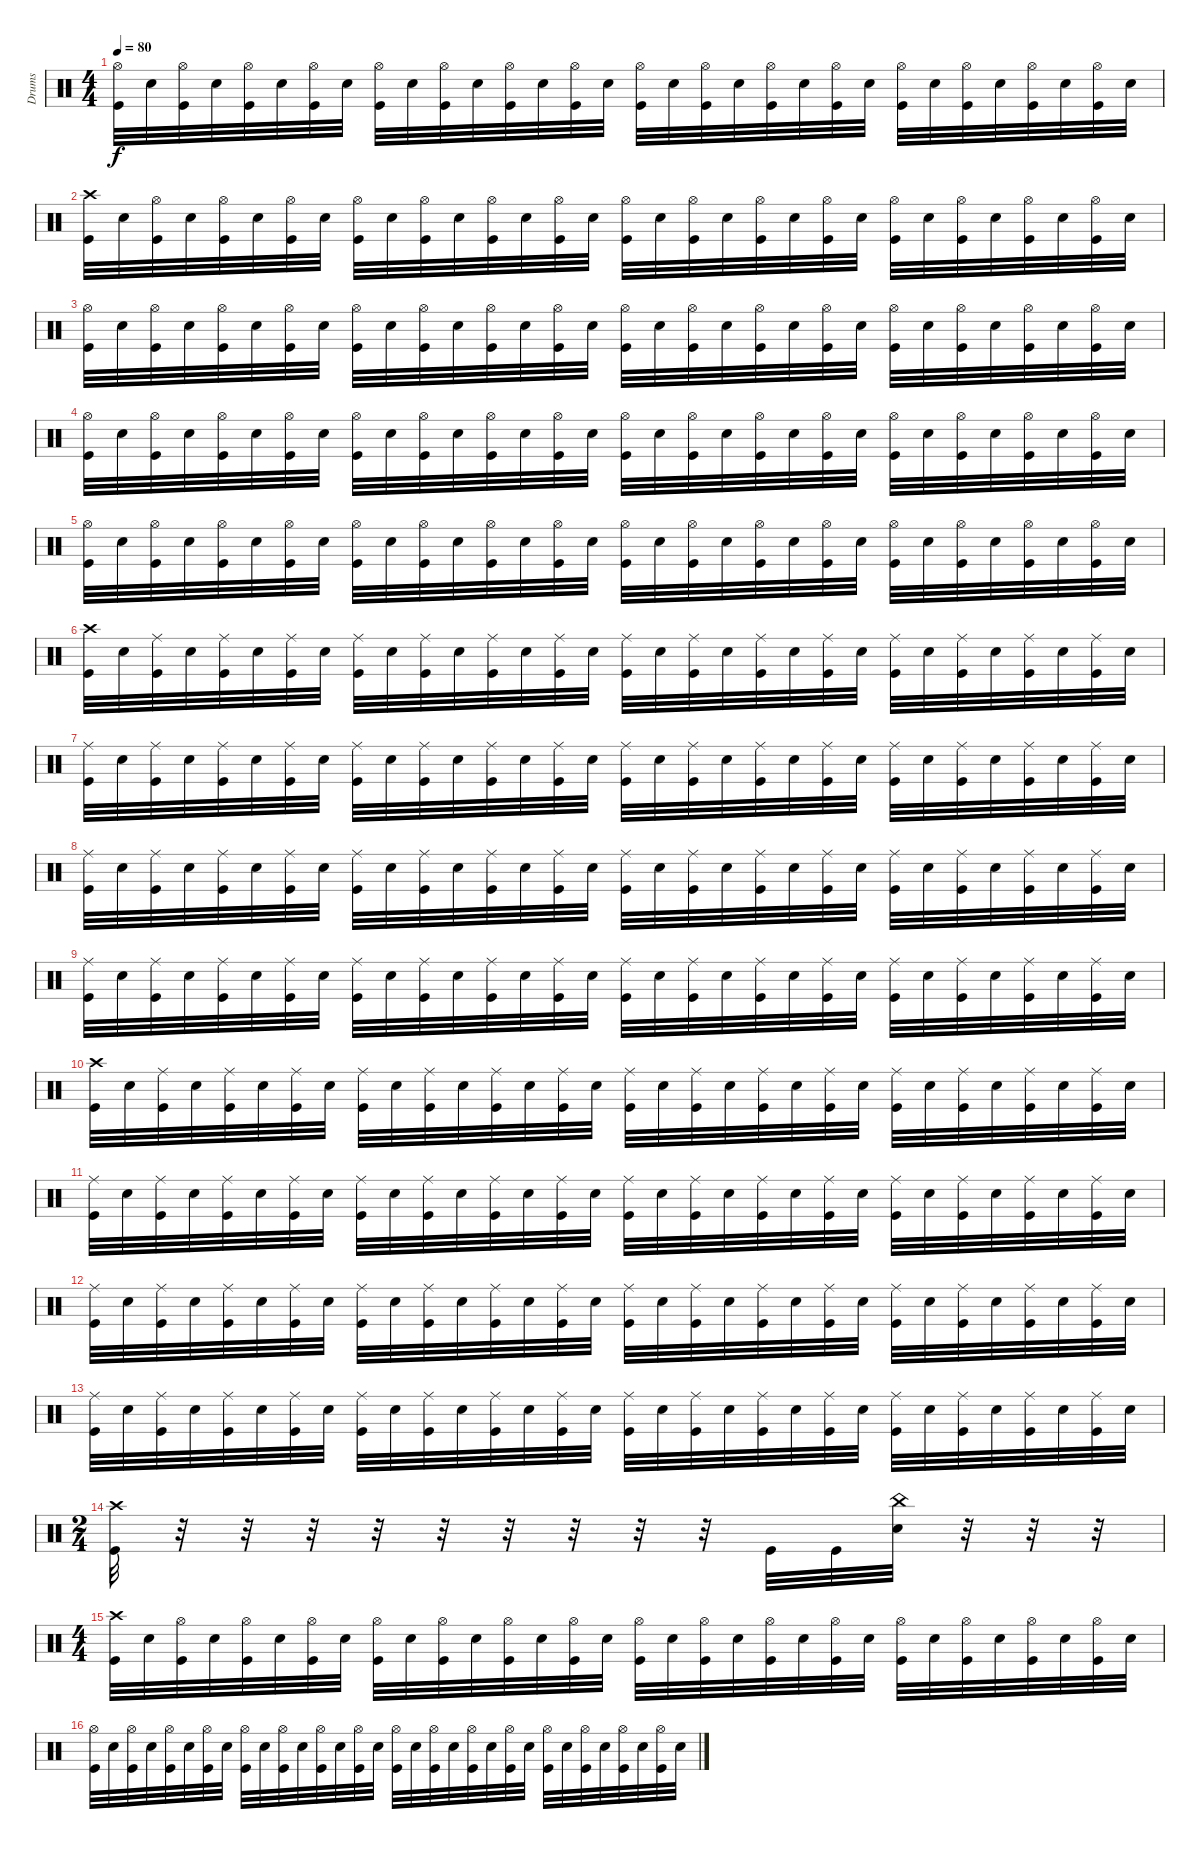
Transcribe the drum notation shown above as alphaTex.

\track ("Drums" "Drums") {instrument percussion}
\staff {score}
\articulation defaults
\ts (4 4)
\tempo 80
\clef neutral
\ks c
("Hi-Hat (open)" "Kick (hit)").32{dy f} "Snare (hit) 2".32 ("Hi-Hat (open)" "Kick (hit)").32 "Snare (hit) 2".32 ("Hi-Hat (open)" "Kick (hit)").32 "Snare (hit) 2".32 ("Hi-Hat (open)" "Kick (hit)").32 "Snare (hit) 2".32 ("Hi-Hat (open)" "Kick (hit)").32 "Snare (hit) 2".32 ("Hi-Hat (open)" "Kick (hit)").32 "Snare (hit) 2".32 ("Hi-Hat (open)" "Kick (hit)").32 "Snare (hit) 2".32 ("Hi-Hat (open)" "Kick (hit)").32 "Snare (hit) 2".32 ("Hi-Hat (open)" "Kick (hit)").32 "Snare (hit) 2".32 ("Hi-Hat (open)" "Kick (hit)").32 "Snare (hit) 2".32 ("Hi-Hat (open)" "Kick (hit)").32 "Snare (hit) 2".32 ("Hi-Hat (open)" "Kick (hit)").32 "Snare (hit) 2".32 ("Hi-Hat (open)" "Kick (hit)").32 "Snare (hit) 2".32 ("Hi-Hat (open)" "Kick (hit)").32 "Snare (hit) 2".32 ("Hi-Hat (open)" "Kick (hit)").32 "Snare (hit) 2".32 ("Hi-Hat (open)" "Kick (hit)").32 "Snare (hit) 2".32 |
("Crash high (hit)" "Kick (hit)").32 "Snare (hit) 2".32 ("Hi-Hat (open)" "Kick (hit)").32 "Snare (hit) 2".32 ("Hi-Hat (open)" "Kick (hit)").32 "Snare (hit) 2".32 ("Hi-Hat (open)" "Kick (hit)").32 "Snare (hit) 2".32 ("Hi-Hat (open)" "Kick (hit)").32 "Snare (hit) 2".32 ("Hi-Hat (open)" "Kick (hit)").32 "Snare (hit) 2".32 ("Hi-Hat (open)" "Kick (hit)").32 "Snare (hit) 2".32 ("Hi-Hat (open)" "Kick (hit)").32 "Snare (hit) 2".32 ("Hi-Hat (open)" "Kick (hit)").32 "Snare (hit) 2".32 ("Hi-Hat (open)" "Kick (hit)").32 "Snare (hit) 2".32 ("Hi-Hat (open)" "Kick (hit)").32 "Snare (hit) 2".32 ("Hi-Hat (open)" "Kick (hit)").32 "Snare (hit) 2".32 ("Hi-Hat (open)" "Kick (hit)").32 "Snare (hit) 2".32 ("Hi-Hat (open)" "Kick (hit)").32 "Snare (hit) 2".32 ("Hi-Hat (open)" "Kick (hit)").32 "Snare (hit) 2".32 ("Hi-Hat (open)" "Kick (hit)").32 "Snare (hit) 2".32 |
("Hi-Hat (open)" "Kick (hit)").32 "Snare (hit) 2".32 ("Hi-Hat (open)" "Kick (hit)").32 "Snare (hit) 2".32 ("Hi-Hat (open)" "Kick (hit)").32 "Snare (hit) 2".32 ("Hi-Hat (open)" "Kick (hit)").32 "Snare (hit) 2".32 ("Hi-Hat (open)" "Kick (hit)").32 "Snare (hit) 2".32 ("Hi-Hat (open)" "Kick (hit)").32 "Snare (hit) 2".32 ("Hi-Hat (open)" "Kick (hit)").32 "Snare (hit) 2".32 ("Hi-Hat (open)" "Kick (hit)").32 "Snare (hit) 2".32 ("Hi-Hat (open)" "Kick (hit)").32 "Snare (hit) 2".32 ("Hi-Hat (open)" "Kick (hit)").32 "Snare (hit) 2".32 ("Hi-Hat (open)" "Kick (hit)").32 "Snare (hit) 2".32 ("Hi-Hat (open)" "Kick (hit)").32 "Snare (hit) 2".32 ("Hi-Hat (open)" "Kick (hit)").32 "Snare (hit) 2".32 ("Hi-Hat (open)" "Kick (hit)").32 "Snare (hit) 2".32 ("Hi-Hat (open)" "Kick (hit)").32 "Snare (hit) 2".32 ("Hi-Hat (open)" "Kick (hit)").32 "Snare (hit) 2".32 |
("Hi-Hat (open)" "Kick (hit)").32 "Snare (hit) 2".32 ("Hi-Hat (open)" "Kick (hit)").32 "Snare (hit) 2".32 ("Hi-Hat (open)" "Kick (hit)").32 "Snare (hit) 2".32 ("Hi-Hat (open)" "Kick (hit)").32 "Snare (hit) 2".32 ("Hi-Hat (open)" "Kick (hit)").32 "Snare (hit) 2".32 ("Hi-Hat (open)" "Kick (hit)").32 "Snare (hit) 2".32 ("Hi-Hat (open)" "Kick (hit)").32 "Snare (hit) 2".32 ("Hi-Hat (open)" "Kick (hit)").32 "Snare (hit) 2".32 ("Hi-Hat (open)" "Kick (hit)").32 "Snare (hit) 2".32 ("Hi-Hat (open)" "Kick (hit)").32 "Snare (hit) 2".32 ("Hi-Hat (open)" "Kick (hit)").32 "Snare (hit) 2".32 ("Hi-Hat (open)" "Kick (hit)").32 "Snare (hit) 2".32 ("Hi-Hat (open)" "Kick (hit)").32 "Snare (hit) 2".32 ("Hi-Hat (open)" "Kick (hit)").32 "Snare (hit) 2".32 ("Hi-Hat (open)" "Kick (hit)").32 "Snare (hit) 2".32 ("Hi-Hat (open)" "Kick (hit)").32 "Snare (hit) 2".32 |
("Hi-Hat (open)" "Kick (hit)").32 "Snare (hit) 2".32 ("Hi-Hat (open)" "Kick (hit)").32 "Snare (hit) 2".32 ("Hi-Hat (open)" "Kick (hit)").32 "Snare (hit) 2".32 ("Hi-Hat (open)" "Kick (hit)").32 "Snare (hit) 2".32 ("Hi-Hat (open)" "Kick (hit)").32 "Snare (hit) 2".32 ("Hi-Hat (open)" "Kick (hit)").32 "Snare (hit) 2".32 ("Hi-Hat (open)" "Kick (hit)").32 "Snare (hit) 2".32 ("Hi-Hat (open)" "Kick (hit)").32 "Snare (hit) 2".32 ("Hi-Hat (open)" "Kick (hit)").32 "Snare (hit) 2".32 ("Hi-Hat (open)" "Kick (hit)").32 "Snare (hit) 2".32 ("Hi-Hat (open)" "Kick (hit)").32 "Snare (hit) 2".32 ("Hi-Hat (open)" "Kick (hit)").32 "Snare (hit) 2".32 ("Hi-Hat (open)" "Kick (hit)").32 "Snare (hit) 2".32 ("Hi-Hat (open)" "Kick (hit)").32 "Snare (hit) 2".32 ("Hi-Hat (open)" "Kick (hit)").32 "Snare (hit) 2".32 ("Hi-Hat (open)" "Kick (hit)").32 "Snare (hit) 2".32 |
("Crash high (hit)" "Kick (hit)").32 "Snare (hit) 2".32 ("Ride (middle)" "Kick (hit)").32 "Snare (hit) 2".32 ("Ride (middle)" "Kick (hit)").32 "Snare (hit) 2".32 ("Ride (middle)" "Kick (hit)").32 "Snare (hit) 2".32 ("Ride (middle)" "Kick (hit)").32 "Snare (hit) 2".32 ("Ride (middle)" "Kick (hit)").32 "Snare (hit) 2".32 ("Ride (middle)" "Kick (hit)").32 "Snare (hit) 2".32 ("Ride (middle)" "Kick (hit)").32 "Snare (hit) 2".32 ("Ride (middle)" "Kick (hit)").32 "Snare (hit) 2".32 ("Ride (middle)" "Kick (hit)").32 "Snare (hit) 2".32 ("Ride (middle)" "Kick (hit)").32 "Snare (hit) 2".32 ("Ride (middle)" "Kick (hit)").32 "Snare (hit) 2".32 ("Ride (middle)" "Kick (hit)").32 "Snare (hit) 2".32 ("Ride (middle)" "Kick (hit)").32 "Snare (hit) 2".32 ("Ride (middle)" "Kick (hit)").32 "Snare (hit) 2".32 ("Ride (middle)" "Kick (hit)").32 "Snare (hit) 2".32 |
("Ride (middle)" "Kick (hit)").32 "Snare (hit) 2".32 ("Ride (middle)" "Kick (hit)").32 "Snare (hit) 2".32 ("Ride (middle)" "Kick (hit)").32 "Snare (hit) 2".32 ("Ride (middle)" "Kick (hit)").32 "Snare (hit) 2".32 ("Ride (middle)" "Kick (hit)").32 "Snare (hit) 2".32 ("Ride (middle)" "Kick (hit)").32 "Snare (hit) 2".32 ("Ride (middle)" "Kick (hit)").32 "Snare (hit) 2".32 ("Ride (middle)" "Kick (hit)").32 "Snare (hit) 2".32 ("Ride (middle)" "Kick (hit)").32 "Snare (hit) 2".32 ("Ride (middle)" "Kick (hit)").32 "Snare (hit) 2".32 ("Ride (middle)" "Kick (hit)").32 "Snare (hit) 2".32 ("Ride (middle)" "Kick (hit)").32 "Snare (hit) 2".32 ("Ride (middle)" "Kick (hit)").32 "Snare (hit) 2".32 ("Ride (middle)" "Kick (hit)").32 "Snare (hit) 2".32 ("Ride (middle)" "Kick (hit)").32 "Snare (hit) 2".32 ("Ride (middle)" "Kick (hit)").32 "Snare (hit) 2".32 |
("Ride (middle)" "Kick (hit)").32 "Snare (hit) 2".32 ("Ride (middle)" "Kick (hit)").32 "Snare (hit) 2".32 ("Ride (middle)" "Kick (hit)").32 "Snare (hit) 2".32 ("Ride (middle)" "Kick (hit)").32 "Snare (hit) 2".32 ("Ride (middle)" "Kick (hit)").32 "Snare (hit) 2".32 ("Ride (middle)" "Kick (hit)").32 "Snare (hit) 2".32 ("Ride (middle)" "Kick (hit)").32 "Snare (hit) 2".32 ("Ride (middle)" "Kick (hit)").32 "Snare (hit) 2".32 ("Ride (middle)" "Kick (hit)").32 "Snare (hit) 2".32 ("Ride (middle)" "Kick (hit)").32 "Snare (hit) 2".32 ("Ride (middle)" "Kick (hit)").32 "Snare (hit) 2".32 ("Ride (middle)" "Kick (hit)").32 "Snare (hit) 2".32 ("Ride (middle)" "Kick (hit)").32 "Snare (hit) 2".32 ("Ride (middle)" "Kick (hit)").32 "Snare (hit) 2".32 ("Ride (middle)" "Kick (hit)").32 "Snare (hit) 2".32 ("Ride (middle)" "Kick (hit)").32 "Snare (hit) 2".32 |
("Ride (middle)" "Kick (hit)").32 "Snare (hit) 2".32 ("Ride (middle)" "Kick (hit)").32 "Snare (hit) 2".32 ("Ride (middle)" "Kick (hit)").32 "Snare (hit) 2".32 ("Ride (middle)" "Kick (hit)").32 "Snare (hit) 2".32 ("Ride (middle)" "Kick (hit)").32 "Snare (hit) 2".32 ("Ride (middle)" "Kick (hit)").32 "Snare (hit) 2".32 ("Ride (middle)" "Kick (hit)").32 "Snare (hit) 2".32 ("Ride (middle)" "Kick (hit)").32 "Snare (hit) 2".32 ("Ride (middle)" "Kick (hit)").32 "Snare (hit) 2".32 ("Ride (middle)" "Kick (hit)").32 "Snare (hit) 2".32 ("Ride (middle)" "Kick (hit)").32 "Snare (hit) 2".32 ("Ride (middle)" "Kick (hit)").32 "Snare (hit) 2".32 ("Ride (middle)" "Kick (hit)").32 "Snare (hit) 2".32 ("Ride (middle)" "Kick (hit)").32 "Snare (hit) 2".32 ("Ride (middle)" "Kick (hit)").32 "Snare (hit) 2".32 ("Ride (middle)" "Kick (hit)").32 "Snare (hit) 2".32 |
("Crash high (hit)" "Kick (hit)").32 "Snare (hit) 2".32 ("Ride (middle)" "Kick (hit)").32 "Snare (hit) 2".32 ("Ride (middle)" "Kick (hit)").32 "Snare (hit) 2".32 ("Ride (middle)" "Kick (hit)").32 "Snare (hit) 2".32 ("Ride (middle)" "Kick (hit)").32 "Snare (hit) 2".32 ("Ride (middle)" "Kick (hit)").32 "Snare (hit) 2".32 ("Ride (middle)" "Kick (hit)").32 "Snare (hit) 2".32 ("Ride (middle)" "Kick (hit)").32 "Snare (hit) 2".32 ("Ride (middle)" "Kick (hit)").32 "Snare (hit) 2".32 ("Ride (middle)" "Kick (hit)").32 "Snare (hit) 2".32 ("Ride (middle)" "Kick (hit)").32 "Snare (hit) 2".32 ("Ride (middle)" "Kick (hit)").32 "Snare (hit) 2".32 ("Ride (middle)" "Kick (hit)").32 "Snare (hit) 2".32 ("Ride (middle)" "Kick (hit)").32 "Snare (hit) 2".32 ("Ride (middle)" "Kick (hit)").32 "Snare (hit) 2".32 ("Ride (middle)" "Kick (hit)").32 "Snare (hit) 2".32 |
("Ride (middle)" "Kick (hit)").32 "Snare (hit) 2".32 ("Ride (middle)" "Kick (hit)").32 "Snare (hit) 2".32 ("Ride (middle)" "Kick (hit)").32 "Snare (hit) 2".32 ("Ride (middle)" "Kick (hit)").32 "Snare (hit) 2".32 ("Ride (middle)" "Kick (hit)").32 "Snare (hit) 2".32 ("Ride (middle)" "Kick (hit)").32 "Snare (hit) 2".32 ("Ride (middle)" "Kick (hit)").32 "Snare (hit) 2".32 ("Ride (middle)" "Kick (hit)").32 "Snare (hit) 2".32 ("Ride (middle)" "Kick (hit)").32 "Snare (hit) 2".32 ("Ride (middle)" "Kick (hit)").32 "Snare (hit) 2".32 ("Ride (middle)" "Kick (hit)").32 "Snare (hit) 2".32 ("Ride (middle)" "Kick (hit)").32 "Snare (hit) 2".32 ("Ride (middle)" "Kick (hit)").32 "Snare (hit) 2".32 ("Ride (middle)" "Kick (hit)").32 "Snare (hit) 2".32 ("Ride (middle)" "Kick (hit)").32 "Snare (hit) 2".32 ("Ride (middle)" "Kick (hit)").32 "Snare (hit) 2".32 |
("Ride (middle)" "Kick (hit)").32 "Snare (hit) 2".32 ("Ride (middle)" "Kick (hit)").32 "Snare (hit) 2".32 ("Ride (middle)" "Kick (hit)").32 "Snare (hit) 2".32 ("Ride (middle)" "Kick (hit)").32 "Snare (hit) 2".32 ("Ride (middle)" "Kick (hit)").32 "Snare (hit) 2".32 ("Ride (middle)" "Kick (hit)").32 "Snare (hit) 2".32 ("Ride (middle)" "Kick (hit)").32 "Snare (hit) 2".32 ("Ride (middle)" "Kick (hit)").32 "Snare (hit) 2".32 ("Ride (middle)" "Kick (hit)").32 "Snare (hit) 2".32 ("Ride (middle)" "Kick (hit)").32 "Snare (hit) 2".32 ("Ride (middle)" "Kick (hit)").32 "Snare (hit) 2".32 ("Ride (middle)" "Kick (hit)").32 "Snare (hit) 2".32 ("Ride (middle)" "Kick (hit)").32 "Snare (hit) 2".32 ("Ride (middle)" "Kick (hit)").32 "Snare (hit) 2".32 ("Ride (middle)" "Kick (hit)").32 "Snare (hit) 2".32 ("Ride (middle)" "Kick (hit)").32 "Snare (hit) 2".32 |
("Ride (middle)" "Kick (hit)").32 "Snare (hit) 2".32 ("Ride (middle)" "Kick (hit)").32 "Snare (hit) 2".32 ("Ride (middle)" "Kick (hit)").32 "Snare (hit) 2".32 ("Ride (middle)" "Kick (hit)").32 "Snare (hit) 2".32 ("Ride (middle)" "Kick (hit)").32 "Snare (hit) 2".32 ("Ride (middle)" "Kick (hit)").32 "Snare (hit) 2".32 ("Ride (middle)" "Kick (hit)").32 "Snare (hit) 2".32 ("Ride (middle)" "Kick (hit)").32 "Snare (hit) 2".32 ("Ride (middle)" "Kick (hit)").32 "Snare (hit) 2".32 ("Ride (middle)" "Kick (hit)").32 "Snare (hit) 2".32 ("Ride (middle)" "Kick (hit)").32 "Snare (hit) 2".32 ("Ride (middle)" "Kick (hit)").32 "Snare (hit) 2".32 ("Ride (middle)" "Kick (hit)").32 "Snare (hit) 2".32 ("Ride (middle)" "Kick (hit)").32 "Snare (hit) 2".32 ("Ride (middle)" "Kick (hit)").32 "Snare (hit) 2".32 ("Ride (middle)" "Kick (hit)").32 "Snare (hit) 2".32 |
\ts (2 4)
("Crash high (hit)" "Kick (hit)").32 r.32 r.32 r.32 r.32 r.32 r.32 r.32 r.32 r.32 "Kick (hit)".32 "Kick (hit)".32 ("China (hit)" "Snare (hit) 2").32 r.32 r.32 r.32 |
\ts (4 4)
("Crash high (hit)" "Kick (hit)").32 "Snare (hit) 2".32 ("Hi-Hat (open)" "Kick (hit)").32 "Snare (hit) 2".32 ("Hi-Hat (open)" "Kick (hit)").32 "Snare (hit) 2".32 ("Hi-Hat (open)" "Kick (hit)").32 "Snare (hit) 2".32 ("Hi-Hat (open)" "Kick (hit)").32 "Snare (hit) 2".32 ("Hi-Hat (open)" "Kick (hit)").32 "Snare (hit) 2".32 ("Hi-Hat (open)" "Kick (hit)").32 "Snare (hit) 2".32 ("Hi-Hat (open)" "Kick (hit)").32 "Snare (hit) 2".32 ("Hi-Hat (open)" "Kick (hit)").32 "Snare (hit) 2".32 ("Hi-Hat (open)" "Kick (hit)").32 "Snare (hit) 2".32 ("Hi-Hat (open)" "Kick (hit)").32 "Snare (hit) 2".32 ("Hi-Hat (open)" "Kick (hit)").32 "Snare (hit) 2".32 ("Hi-Hat (open)" "Kick (hit)").32 "Snare (hit) 2".32 ("Hi-Hat (open)" "Kick (hit)").32 "Snare (hit) 2".32 ("Hi-Hat (open)" "Kick (hit)").32 "Snare (hit) 2".32 ("Hi-Hat (open)" "Kick (hit)").32 "Snare (hit) 2".32 |
("Hi-Hat (open)" "Kick (hit)").32 "Snare (hit) 2".32 ("Hi-Hat (open)" "Kick (hit)").32 "Snare (hit) 2".32 ("Hi-Hat (open)" "Kick (hit)").32 "Snare (hit) 2".32 ("Hi-Hat (open)" "Kick (hit)").32 "Snare (hit) 2".32 ("Hi-Hat (open)" "Kick (hit)").32 "Snare (hit) 2".32 ("Hi-Hat (open)" "Kick (hit)").32 "Snare (hit) 2".32 ("Hi-Hat (open)" "Kick (hit)").32 "Snare (hit) 2".32 ("Hi-Hat (open)" "Kick (hit)").32 "Snare (hit) 2".32 ("Hi-Hat (open)" "Kick (hit)").32 "Snare (hit) 2".32 ("Hi-Hat (open)" "Kick (hit)").32 "Snare (hit) 2".32 ("Hi-Hat (open)" "Kick (hit)").32 "Snare (hit) 2".32 ("Hi-Hat (open)" "Kick (hit)").32 "Snare (hit) 2".32 ("Hi-Hat (open)" "Kick (hit)").32 "Snare (hit) 2".32 ("Hi-Hat (open)" "Kick (hit)").32 "Snare (hit) 2".32 ("Hi-Hat (open)" "Kick (hit)").32 "Snare (hit) 2".32 ("Hi-Hat (open)" "Kick (hit)").32 "Snare (hit) 2".32
